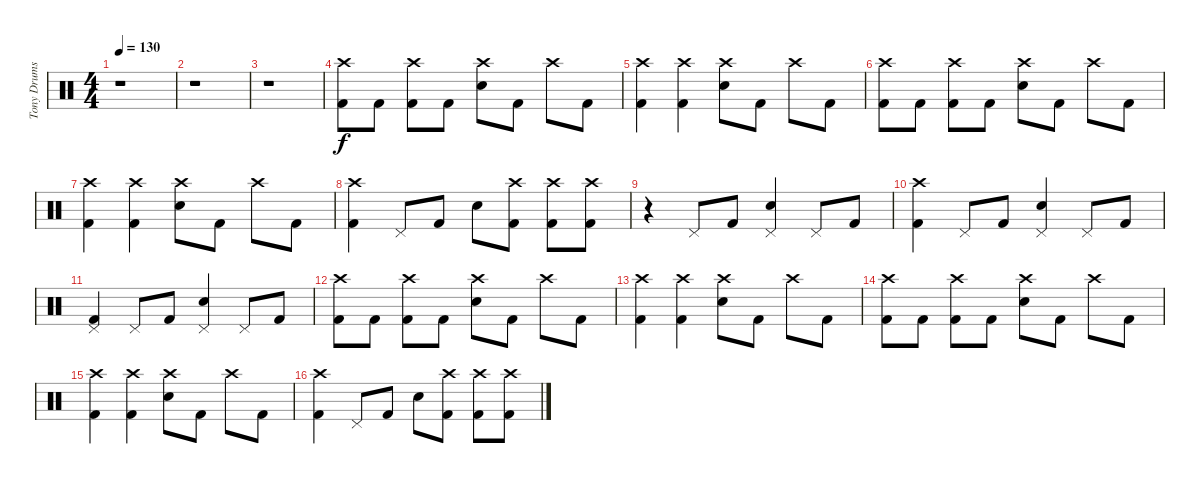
\track ("Tony Drums" "Tony Drums") {instrument percussion}
\staff {score}
\articulation defaults
\ts (4 4)
\tempo 130
\clef neutral
\ks c
r.1{dy f} |
r.1 |
r.1 |
("Crash high (hit)" "Kick (hit) 2").8 "Kick (hit) 2".8 ("Crash high (hit)" "Kick (hit) 2").8 "Kick (hit) 2".8 ("Crash high (hit)" "Snare (hit) 2").8 "Kick (hit) 2".8 "Crash high (hit)".8 "Kick (hit) 2".8 |
("Crash high (hit)" "Kick (hit) 2").4 ("Crash high (hit)" "Kick (hit) 2").4 ("Crash high (hit)" "Snare (hit) 2").8 "Kick (hit) 2".8 "Crash high (hit)".8 "Kick (hit) 2".8 |
("Crash high (hit)" "Kick (hit) 2").8 "Kick (hit) 2".8 ("Crash high (hit)" "Kick (hit) 2").8 "Kick (hit) 2".8 ("Crash high (hit)" "Snare (hit) 2").8 "Kick (hit) 2".8 "Crash high (hit)".8 "Kick (hit) 2".8 |
("Crash high (hit)" "Kick (hit) 2").4 ("Crash high (hit)" "Kick (hit) 2").4 ("Crash high (hit)" "Snare (hit) 2").8 "Kick (hit) 2".8 "Crash high (hit)".8 "Kick (hit) 2".8 |
("Crash high (hit)" "Kick (hit) 2").4 "Pedal Hi-Hat (hit)".8 "Kick (hit) 2".8 "Snare (hit) 2".8 ("Crash high (hit)" "Kick (hit) 2").8 ("Crash high (hit)" "Kick (hit) 2").8 ("Crash high (hit)" "Kick (hit) 2").8 |
r.4 "Pedal Hi-Hat (hit)".8 "Kick (hit) 2".8 ("Pedal Hi-Hat (hit)" "Snare (hit) 2").4 "Pedal Hi-Hat (hit)".8 "Kick (hit) 2".8 |
("Crash high (hit)" "Kick (hit) 2").4 "Pedal Hi-Hat (hit)".8 "Kick (hit) 2".8 ("Pedal Hi-Hat (hit)" "Snare (hit) 2").4 "Pedal Hi-Hat (hit)".8 "Kick (hit) 2".8 |
("Pedal Hi-Hat (hit)" "Kick (hit) 2").4 "Pedal Hi-Hat (hit)".8 "Kick (hit) 2".8 ("Pedal Hi-Hat (hit)" "Snare (hit) 2").4 "Pedal Hi-Hat (hit)".8 "Kick (hit) 2".8 |
("Crash high (hit)" "Kick (hit) 2").8 "Kick (hit) 2".8 ("Crash high (hit)" "Kick (hit) 2").8 "Kick (hit) 2".8 ("Crash high (hit)" "Snare (hit) 2").8 "Kick (hit) 2".8 "Crash high (hit)".8 "Kick (hit) 2".8 |
("Crash high (hit)" "Kick (hit) 2").4 ("Crash high (hit)" "Kick (hit) 2").4 ("Crash high (hit)" "Snare (hit) 2").8 "Kick (hit) 2".8 "Crash high (hit)".8 "Kick (hit) 2".8 |
("Crash high (hit)" "Kick (hit) 2").8 "Kick (hit) 2".8 ("Crash high (hit)" "Kick (hit) 2").8 "Kick (hit) 2".8 ("Crash high (hit)" "Snare (hit) 2").8 "Kick (hit) 2".8 "Crash high (hit)".8 "Kick (hit) 2".8 |
("Crash high (hit)" "Kick (hit) 2").4 ("Crash high (hit)" "Kick (hit) 2").4 ("Crash high (hit)" "Snare (hit) 2").8 "Kick (hit) 2".8 "Crash high (hit)".8 "Kick (hit) 2".8 |
("Crash high (hit)" "Kick (hit) 2").4 "Pedal Hi-Hat (hit)".8 "Kick (hit) 2".8 "Snare (hit) 2".8 ("Crash high (hit)" "Kick (hit) 2").8 ("Crash high (hit)" "Kick (hit) 2").8 ("Crash high (hit)" "Kick (hit) 2").8
